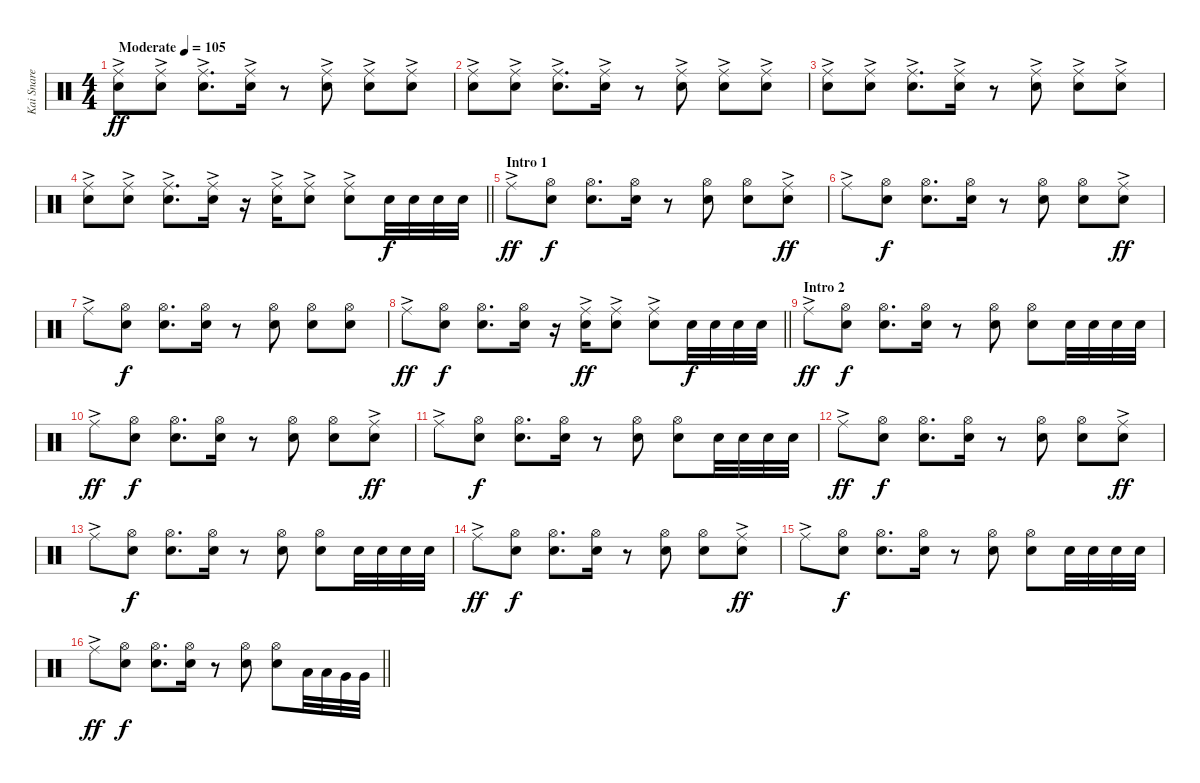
\track ("Kai Snare" "Kai Snare") {instrument percussion}
\staff {score}
\articulation defaults
\ts (4 4)
\tempo (105 "Moderate")
\clef neutral
\ks c
("Ride (middle)"{ac} "Snare (hit) 2").8{dy ff} ("Ride (middle)"{ac} "Snare (hit) 2").8 ("Ride (middle)"{ac} "Snare (hit) 2").8{d} ("Ride (middle)"{ac} "Snare (hit) 2").16 r.8 ("Ride (middle)"{ac} "Snare (hit) 2").8 ("Ride (middle)"{ac} "Snare (hit) 2").8 ("Ride (middle)"{ac} "Snare (hit) 2").8 |
("Ride (middle)"{ac} "Snare (hit) 2").8 ("Ride (middle)"{ac} "Snare (hit) 2").8 ("Ride (middle)"{ac} "Snare (hit) 2").8{d} ("Ride (middle)"{ac} "Snare (hit) 2").16 r.8 ("Ride (middle)"{ac} "Snare (hit) 2").8 ("Ride (middle)"{ac} "Snare (hit) 2").8 ("Ride (middle)"{ac} "Snare (hit) 2").8 |
("Ride (middle)"{ac} "Snare (hit) 2").8 ("Ride (middle)"{ac} "Snare (hit) 2").8 ("Ride (middle)"{ac} "Snare (hit) 2").8{d} ("Ride (middle)"{ac} "Snare (hit) 2").16 r.8 ("Ride (middle)"{ac} "Snare (hit) 2").8 ("Ride (middle)"{ac} "Snare (hit) 2").8 ("Ride (middle)"{ac} "Snare (hit) 2").8 |
\barLineRight lightlight
("Ride (middle)"{ac} "Snare (hit) 2").8 ("Ride (middle)"{ac} "Snare (hit) 2").8 ("Ride (middle)"{ac} "Snare (hit) 2").8{d} ("Ride (middle)"{ac} "Snare (hit) 2").16 r.16 ("Ride (middle)"{ac} "Snare (hit) 2").16 ("Ride (middle)"{ac} "Snare (hit) 2").8 ("Ride (middle)"{ac} "Snare (hit) 2").8 "Snare (hit) 2".32{dy f} "Snare (hit) 2".32 "Snare (hit) 2".32 "Snare (hit) 2".32 |
\section ("" "Intro 1")
"Ride (middle)"{ac}.8{dy ff} ("Hi-Hat (open)" "Snare (hit) 2").8{dy f} ("Hi-Hat (open)" "Snare (hit) 2").8{d} ("Hi-Hat (open)" "Snare (hit) 2").16 r.8 ("Hi-Hat (open)" "Snare (hit) 2").8 ("Hi-Hat (open)" "Snare (hit) 2").8 ("Ride (middle)"{ac} "Snare (hit) 2").8{dy ff} |
"Ride (middle)"{ac}.8 ("Hi-Hat (open)" "Snare (hit) 2").8{dy f} ("Hi-Hat (open)" "Snare (hit) 2").8{d} ("Hi-Hat (open)" "Snare (hit) 2").16 r.8 ("Hi-Hat (open)" "Snare (hit) 2").8 ("Hi-Hat (open)" "Snare (hit) 2").8 ("Ride (middle)"{ac} "Snare (hit) 2").8{dy ff} |
"Ride (middle)"{ac}.8 ("Hi-Hat (open)" "Snare (hit) 2").8{dy f} ("Hi-Hat (open)" "Snare (hit) 2").8{d} ("Hi-Hat (open)" "Snare (hit) 2").16 r.8 ("Hi-Hat (open)" "Snare (hit) 2").8 ("Hi-Hat (open)" "Snare (hit) 2").8 ("Hi-Hat (open)" "Snare (hit) 2").8 |
\barLineRight lightlight "Ride (middle)"{ac}.8{dy ff}
("Hi-Hat (open)" "Snare (hit) 2").8{dy f} ("Hi-Hat (open)" "Snare (hit) 2").8{d} ("Hi-Hat (open)" "Snare (hit) 2").16 r.16 ("Ride (middle)"{ac} "Snare (hit) 2").16{dy ff} ("Ride (middle)"{ac} "Snare (hit) 2").8 ("Ride (middle)"{ac} "Snare (hit) 2").8 "Snare (hit) 2".32{dy f} "Snare (hit) 2".32 "Snare (hit) 2".32 "Snare (hit) 2".32 |
\section ("" "Intro 2")
"Ride (middle)"{ac}.8{dy ff} ("Hi-Hat (open)" "Snare (hit) 2").8{dy f} ("Hi-Hat (open)" "Snare (hit) 2").8{d} ("Hi-Hat (open)" "Snare (hit) 2").16 r.8 ("Hi-Hat (open)" "Snare (hit) 2").8 ("Hi-Hat (open)" "Snare (hit) 2").8 "Snare (hit) 2".32 "Snare (hit) 2".32 "Snare (hit) 2".32 "Snare (hit) 2".32 |
"Ride (middle)"{ac}.8{dy ff} ("Hi-Hat (open)" "Snare (hit) 2").8{dy f} ("Hi-Hat (open)" "Snare (hit) 2").8{d} ("Hi-Hat (open)" "Snare (hit) 2").16 r.8 ("Hi-Hat (open)" "Snare (hit) 2").8 ("Hi-Hat (open)" "Snare (hit) 2").8 ("Ride (middle)"{ac} "Snare (hit) 2").8{dy ff} |
"Ride (middle)"{ac}.8 ("Hi-Hat (open)" "Snare (hit) 2").8{dy f} ("Hi-Hat (open)" "Snare (hit) 2").8{d} ("Hi-Hat (open)" "Snare (hit) 2").16 r.8 ("Hi-Hat (open)" "Snare (hit) 2").8 ("Hi-Hat (open)" "Snare (hit) 2").8 "Snare (hit) 2".32 "Snare (hit) 2".32 "Snare (hit) 2".32 "Snare (hit) 2".32 |
"Ride (middle)"{ac}.8{dy ff} ("Hi-Hat (open)" "Snare (hit) 2").8{dy f} ("Hi-Hat (open)" "Snare (hit) 2").8{d} ("Hi-Hat (open)" "Snare (hit) 2").16 r.8 ("Hi-Hat (open)" "Snare (hit) 2").8 ("Hi-Hat (open)" "Snare (hit) 2").8 ("Ride (middle)"{ac} "Snare (hit) 2").8{dy ff} |
"Ride (middle)"{ac}.8 ("Hi-Hat (open)" "Snare (hit) 2").8{dy f} ("Hi-Hat (open)" "Snare (hit) 2").8{d} ("Hi-Hat (open)" "Snare (hit) 2").16 r.8 ("Hi-Hat (open)" "Snare (hit) 2").8 ("Hi-Hat (open)" "Snare (hit) 2").8 "Snare (hit) 2".32 "Snare (hit) 2".32 "Snare (hit) 2".32 "Snare (hit) 2".32 |
"Ride (middle)"{ac}.8{dy ff} ("Hi-Hat (open)" "Snare (hit) 2").8{dy f} ("Hi-Hat (open)" "Snare (hit) 2").8{d} ("Hi-Hat (open)" "Snare (hit) 2").16 r.8 ("Hi-Hat (open)" "Snare (hit) 2").8 ("Hi-Hat (open)" "Snare (hit) 2").8 ("Ride (middle)"{ac} "Snare (hit) 2").8{dy ff} |
"Ride (middle)"{ac}.8 ("Hi-Hat (open)" "Snare (hit) 2").8{dy f} ("Hi-Hat (open)" "Snare (hit) 2").8{d} ("Hi-Hat (open)" "Snare (hit) 2").16 r.8 ("Hi-Hat (open)" "Snare (hit) 2").8 ("Hi-Hat (open)" "Snare (hit) 2").8 "Snare (hit) 2".32 "Snare (hit) 2".32 "Snare (hit) 2".32 "Snare (hit) 2".32 |
\barLineRight lightlight "Ride (middle)"{ac}.8{dy ff}
("Hi-Hat (open)" "Snare (hit) 2").8{dy f} ("Hi-Hat (open)" "Snare (hit) 2").8{d} ("Hi-Hat (open)" "Snare (hit) 2").16 r.8 ("Hi-Hat (open)" "Snare (hit) 2").8 ("Hi-Hat (open)" "Snare (hit) 2").8 "Low Tom (hit)".32 "Low Tom (hit)".32 "Very Low Tom (hit)".32 "Very Low Tom (hit)".32
